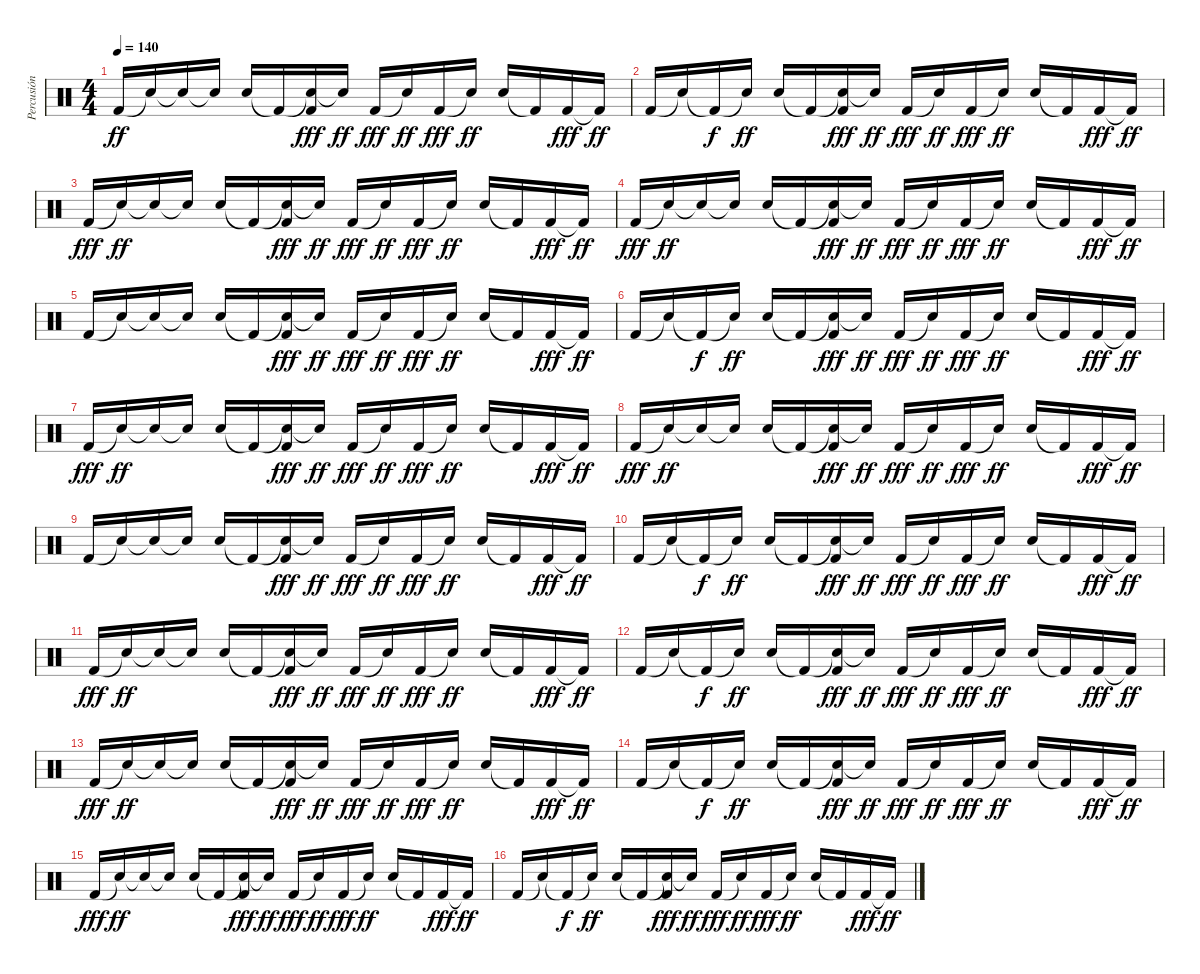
\track ("Percusión" "Percusión") {instrument percussion}
\staff {score}
\articulation defaults
\ts (4 4)
\tempo 140
\clef neutral
\ks c "Kick (hit) 2".16{dy ff} "Snare (hit)"{t}.16 "Electric Snare (hit)"{t}.16 "Snare (hit)"{t}.16 "Electric Snare (hit)".16 "Kick (hit) 2"{t}.16
("Electric Snare (hit)"{t} "Kick (hit) 2").16{dy fff} "Snare (hit)"{t}.16{dy ff} "Kick (hit) 2".16{dy fff} "Snare (hit)"{t}.16{dy ff} "Kick (hit) 2".16{dy fff} "Snare (hit)"{t}.16{dy ff} "Electric Snare (hit)".16 "Kick (hit) 2"{t}.16 "Kick (hit) 2".16{dy fff} "Kick (hit) 2"{t}.16{dy ff} |
"Kick (hit) 2".16 "Snare (hit)"{t}.16 "Kick (hit) 2"{t}.16{dy f} "Snare (hit)"{t}.16{dy ff} "Electric Snare (hit)".16 "Kick (hit) 2"{t}.16 ("Electric Snare (hit)"{t} "Kick (hit) 2").16{dy fff} "Snare (hit)"{t}.16{dy ff} "Kick (hit) 2".16{dy fff} "Snare (hit)"{t}.16{dy ff} "Kick (hit) 2".16{dy fff} "Snare (hit)"{t}.16{dy ff} "Electric Snare (hit)".16 "Kick (hit) 2"{t}.16 "Kick (hit) 2".16{dy fff} "Kick (hit) 2"{t}.16{dy ff} |
"Kick (hit) 2".16{dy fff} "Snare (hit)"{t}.16{dy ff} "Electric Snare (hit)"{t}.16 "Snare (hit)"{t}.16 "Electric Snare (hit)".16 "Kick (hit) 2"{t}.16 ("Electric Snare (hit)"{t} "Kick (hit) 2").16{dy fff} "Snare (hit)"{t}.16{dy ff} "Kick (hit) 2".16{dy fff} "Snare (hit)"{t}.16{dy ff} "Kick (hit) 2".16{dy fff} "Snare (hit)"{t}.16{dy ff} "Electric Snare (hit)".16 "Kick (hit) 2"{t}.16 "Kick (hit) 2".16{dy fff} "Kick (hit) 2"{t}.16{dy ff} |
"Kick (hit) 2".16{dy fff} "Snare (hit)"{t}.16{dy ff} "Electric Snare (hit)"{t}.16 "Snare (hit)"{t}.16 "Electric Snare (hit)".16 "Kick (hit) 2"{t}.16 ("Electric Snare (hit)"{t} "Kick (hit) 2").16{dy fff} "Snare (hit)"{t}.16{dy ff} "Kick (hit) 2".16{dy fff} "Snare (hit)"{t}.16{dy ff} "Kick (hit) 2".16{dy fff} "Snare (hit)"{t}.16{dy ff} "Electric Snare (hit)".16 "Kick (hit) 2"{t}.16 "Kick (hit) 2".16{dy fff} "Kick (hit) 2"{t}.16{dy ff} |
"Kick (hit) 2".16 "Snare (hit)"{t}.16 "Electric Snare (hit)"{t}.16 "Snare (hit)"{t}.16 "Electric Snare (hit)".16 "Kick (hit) 2"{t}.16 ("Electric Snare (hit)"{t} "Kick (hit) 2").16{dy fff} "Snare (hit)"{t}.16{dy ff} "Kick (hit) 2".16{dy fff} "Snare (hit)"{t}.16{dy ff} "Kick (hit) 2".16{dy fff} "Snare (hit)"{t}.16{dy ff} "Electric Snare (hit)".16 "Kick (hit) 2"{t}.16 "Kick (hit) 2".16{dy fff} "Kick (hit) 2"{t}.16{dy ff} |
"Kick (hit) 2".16 "Snare (hit)"{t}.16 "Kick (hit) 2"{t}.16{dy f} "Snare (hit)"{t}.16{dy ff} "Electric Snare (hit)".16 "Kick (hit) 2"{t}.16 ("Electric Snare (hit)"{t} "Kick (hit) 2").16{dy fff} "Snare (hit)"{t}.16{dy ff} "Kick (hit) 2".16{dy fff} "Snare (hit)"{t}.16{dy ff} "Kick (hit) 2".16{dy fff} "Snare (hit)"{t}.16{dy ff} "Electric Snare (hit)".16 "Kick (hit) 2"{t}.16 "Kick (hit) 2".16{dy fff} "Kick (hit) 2"{t}.16{dy ff} |
"Kick (hit) 2".16{dy fff} "Snare (hit)"{t}.16{dy ff} "Electric Snare (hit)"{t}.16 "Snare (hit)"{t}.16 "Electric Snare (hit)".16 "Kick (hit) 2"{t}.16 ("Electric Snare (hit)"{t} "Kick (hit) 2").16{dy fff} "Snare (hit)"{t}.16{dy ff} "Kick (hit) 2".16{dy fff} "Snare (hit)"{t}.16{dy ff} "Kick (hit) 2".16{dy fff} "Snare (hit)"{t}.16{dy ff} "Electric Snare (hit)".16 "Kick (hit) 2"{t}.16 "Kick (hit) 2".16{dy fff} "Kick (hit) 2"{t}.16{dy ff} |
"Kick (hit) 2".16{dy fff} "Snare (hit)"{t}.16{dy ff} "Electric Snare (hit)"{t}.16 "Snare (hit)"{t}.16 "Electric Snare (hit)".16 "Kick (hit) 2"{t}.16 ("Electric Snare (hit)"{t} "Kick (hit) 2").16{dy fff} "Snare (hit)"{t}.16{dy ff} "Kick (hit) 2".16{dy fff} "Snare (hit)"{t}.16{dy ff} "Kick (hit) 2".16{dy fff} "Snare (hit)"{t}.16{dy ff} "Electric Snare (hit)".16 "Kick (hit) 2"{t}.16 "Kick (hit) 2".16{dy fff} "Kick (hit) 2"{t}.16{dy ff} |
"Kick (hit) 2".16 "Snare (hit)"{t}.16 "Electric Snare (hit)"{t}.16 "Snare (hit)"{t}.16 "Electric Snare (hit)".16 "Kick (hit) 2"{t}.16 ("Electric Snare (hit)"{t} "Kick (hit) 2").16{dy fff} "Snare (hit)"{t}.16{dy ff} "Kick (hit) 2".16{dy fff} "Snare (hit)"{t}.16{dy ff} "Kick (hit) 2".16{dy fff} "Snare (hit)"{t}.16{dy ff} "Electric Snare (hit)".16 "Kick (hit) 2"{t}.16 "Kick (hit) 2".16{dy fff} "Kick (hit) 2"{t}.16{dy ff} |
"Kick (hit) 2".16 "Snare (hit)"{t}.16 "Kick (hit) 2"{t}.16{dy f} "Snare (hit)"{t}.16{dy ff} "Electric Snare (hit)".16 "Kick (hit) 2"{t}.16 ("Electric Snare (hit)"{t} "Kick (hit) 2").16{dy fff} "Snare (hit)"{t}.16{dy ff} "Kick (hit) 2".16{dy fff} "Snare (hit)"{t}.16{dy ff} "Kick (hit) 2".16{dy fff} "Snare (hit)"{t}.16{dy ff} "Electric Snare (hit)".16 "Kick (hit) 2"{t}.16 "Kick (hit) 2".16{dy fff} "Kick (hit) 2"{t}.16{dy ff} |
"Kick (hit) 2".16{dy fff} "Snare (hit)"{t}.16{dy ff} "Electric Snare (hit)"{t}.16 "Snare (hit)"{t}.16 "Electric Snare (hit)".16 "Kick (hit) 2"{t}.16 ("Electric Snare (hit)"{t} "Kick (hit) 2").16{dy fff} "Snare (hit)"{t}.16{dy ff} "Kick (hit) 2".16{dy fff} "Snare (hit)"{t}.16{dy ff} "Kick (hit) 2".16{dy fff} "Snare (hit)"{t}.16{dy ff} "Electric Snare (hit)".16 "Kick (hit) 2"{t}.16 "Kick (hit) 2".16{dy fff} "Kick (hit) 2"{t}.16{dy ff} |
"Kick (hit) 2".16 "Snare (hit)"{t}.16 "Kick (hit) 2"{t}.16{dy f} "Snare (hit)"{t}.16{dy ff} "Electric Snare (hit)".16 "Kick (hit) 2"{t}.16 ("Electric Snare (hit)"{t} "Kick (hit) 2").16{dy fff} "Snare (hit)"{t}.16{dy ff} "Kick (hit) 2".16{dy fff} "Snare (hit)"{t}.16{dy ff} "Kick (hit) 2".16{dy fff} "Snare (hit)"{t}.16{dy ff} "Electric Snare (hit)".16 "Kick (hit) 2"{t}.16 "Kick (hit) 2".16{dy fff} "Kick (hit) 2"{t}.16{dy ff} |
"Kick (hit) 2".16{dy fff} "Snare (hit)"{t}.16{dy ff} "Electric Snare (hit)"{t}.16 "Snare (hit)"{t}.16 "Electric Snare (hit)".16 "Kick (hit) 2"{t}.16 ("Electric Snare (hit)"{t} "Kick (hit) 2").16{dy fff} "Snare (hit)"{t}.16{dy ff} "Kick (hit) 2".16{dy fff} "Snare (hit)"{t}.16{dy ff} "Kick (hit) 2".16{dy fff} "Snare (hit)"{t}.16{dy ff} "Electric Snare (hit)".16 "Kick (hit) 2"{t}.16 "Kick (hit) 2".16{dy fff} "Kick (hit) 2"{t}.16{dy ff} |
"Kick (hit) 2".16 "Snare (hit)"{t}.16 "Kick (hit) 2"{t}.16{dy f} "Snare (hit)"{t}.16{dy ff} "Electric Snare (hit)".16 "Kick (hit) 2"{t}.16 ("Electric Snare (hit)"{t} "Kick (hit) 2").16{dy fff} "Snare (hit)"{t}.16{dy ff} "Kick (hit) 2".16{dy fff} "Snare (hit)"{t}.16{dy ff} "Kick (hit) 2".16{dy fff} "Snare (hit)"{t}.16{dy ff} "Electric Snare (hit)".16 "Kick (hit) 2"{t}.16 "Kick (hit) 2".16{dy fff} "Kick (hit) 2"{t}.16{dy ff} |
"Kick (hit) 2".16{dy fff} "Snare (hit)"{t}.16{dy ff} "Electric Snare (hit)"{t}.16 "Snare (hit)"{t}.16 "Electric Snare (hit)".16 "Kick (hit) 2"{t}.16 ("Electric Snare (hit)"{t} "Kick (hit) 2").16{dy fff} "Snare (hit)"{t}.16{dy ff} "Kick (hit) 2".16{dy fff} "Snare (hit)"{t}.16{dy ff} "Kick (hit) 2".16{dy fff} "Snare (hit)"{t}.16{dy ff} "Electric Snare (hit)".16 "Kick (hit) 2"{t}.16 "Kick (hit) 2".16{dy fff} "Kick (hit) 2"{t}.16{dy ff} |
"Kick (hit) 2".16 "Snare (hit)"{t}.16 "Kick (hit) 2"{t}.16{dy f} "Snare (hit)"{t}.16{dy ff} "Electric Snare (hit)".16 "Kick (hit) 2"{t}.16 ("Electric Snare (hit)"{t} "Kick (hit) 2").16{dy fff} "Snare (hit)"{t}.16{dy ff} "Kick (hit) 2".16{dy fff} "Snare (hit)"{t}.16{dy ff} "Kick (hit) 2".16{dy fff} "Snare (hit)"{t}.16{dy ff} "Electric Snare (hit)".16 "Kick (hit) 2"{t}.16 "Kick (hit) 2".16{dy fff} "Kick (hit) 2"{t}.16{dy ff}
